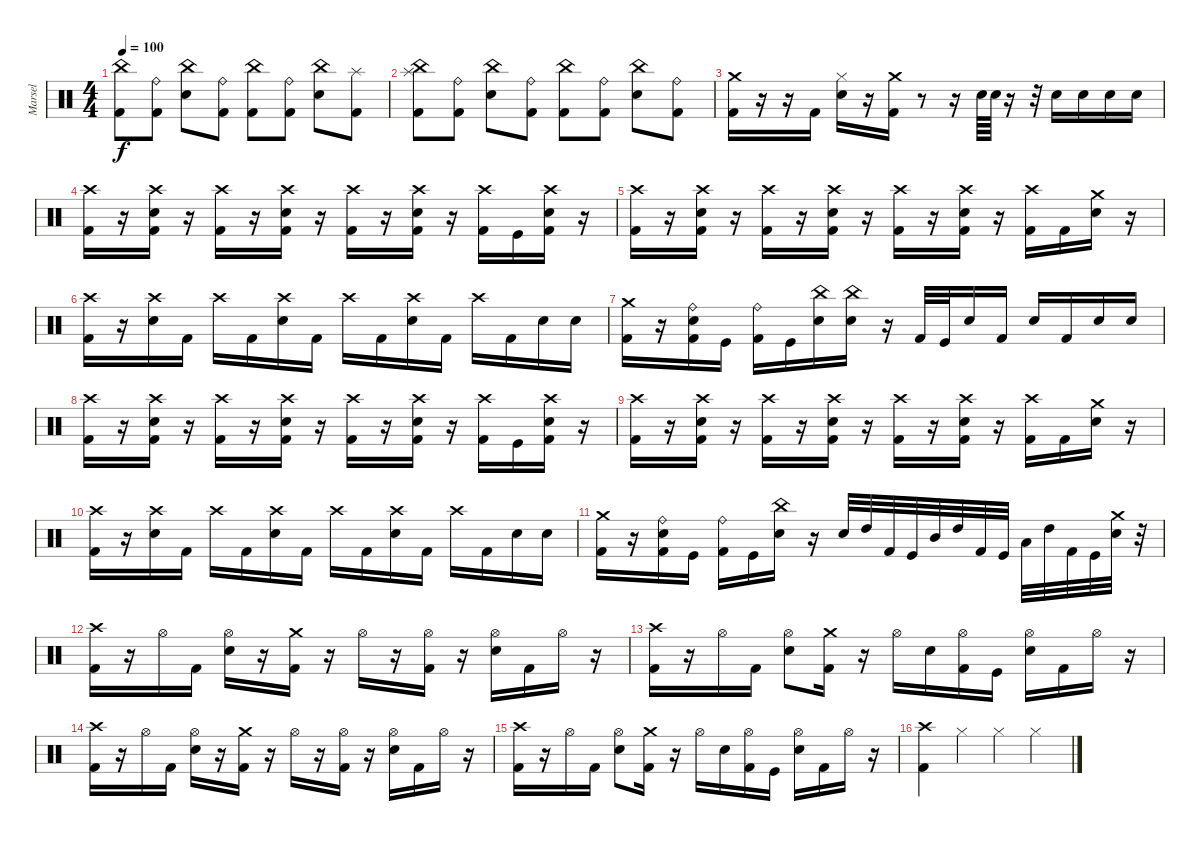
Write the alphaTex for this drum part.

\track ("Marsel" "Marsel") {instrument percussion}
\staff {score}
\articulation defaults
\ts (4 4)
\tempo 100
\clef neutral
\ks c
("China (hit)" "Kick (hit) 2").8{dy f} ("Ride (bell)" "Kick (hit) 2").8 ("China (hit)" "Snare (hit) 2").8 ("Ride (bell)" "Kick (hit) 2").8 ("China (hit)" "Kick (hit) 2").8 ("Ride (bell)" "Kick (hit) 2").8 ("China (hit)" "Snare (hit) 2").8 ("Splash (hit)" "Kick (hit) 2").8 |
("China (hit)" "Splash (hit)" "Kick (hit) 2").8 ("Ride (bell)" "Kick (hit) 2").8 ("China (hit)" "Snare (hit) 2").8 ("Ride (bell)" "Kick (hit) 2").8 ("China (hit)" "Kick (hit) 2").8 ("Ride (bell)" "Kick (hit) 2").8 ("China (hit)" "Snare (hit) 2").8 ("Ride (bell)" "Kick (hit) 2").8 |
("Crash medium (hit)" "Kick (hit) 2").16 r.16 r.16 "Kick (hit) 2".16 ("Hi-Hat (closed)" "Snare (hit) 2").16 r.16 ("Crash medium (hit)" "Kick (hit) 2").16 r.8 r.16 "Snare (hit) 2".64 "Snare (hit) 2".64 r.16 r.32 "Snare (hit) 2".16 "Snare (hit) 2".16 "Snare (hit) 2".16 "Snare (hit) 2".16 |
("Crash high (hit)" "Kick (hit) 2").16 r.16 ("Crash high (hit)" "Snare (hit) 2" "Kick (hit) 2").16 r.16 ("Crash high (hit)" "Kick (hit) 2").16 r.16 ("Crash high (hit)" "Snare (hit) 2" "Kick (hit) 2").16 r.16 ("Crash high (hit)" "Kick (hit) 2").16 r.16 ("Crash high (hit)" "Snare (hit) 2" "Kick (hit) 2").16 r.16 ("Crash high (hit)" "Kick (hit) 2").16 "Kick (hit)".16 ("Crash high (hit)" "Snare (hit) 2" "Kick (hit) 2").16 r.16 |
("Crash high (hit)" "Kick (hit) 2").16 r.16 ("Crash high (hit)" "Snare (hit) 2" "Kick (hit) 2").16 r.16 ("Crash high (hit)" "Kick (hit) 2").16 r.16 ("Crash high (hit)" "Snare (hit) 2" "Kick (hit) 2").16 r.16 ("Crash high (hit)" "Kick (hit) 2").16 r.16 ("Crash high (hit)" "Snare (hit) 2" "Kick (hit) 2").16 r.16 ("Crash high (hit)" "Kick (hit) 2").16 "Kick (hit) 2".16 ("Crash medium (hit)" "Snare (hit) 2").16 r.16 |
("Crash high (hit)" "Kick (hit) 2").16 r.16 ("Crash high (hit)" "Snare (hit) 2").16 "Kick (hit) 2".16 "Crash high (hit)".16 "Kick (hit) 2".16 ("Crash high (hit)" "Snare (hit) 2").16 "Kick (hit) 2".16 "Crash high (hit)".16 "Kick (hit) 2".16 ("Crash high (hit)" "Snare (hit) 2").16 "Kick (hit) 2".16 "Crash high (hit)".16 "Kick (hit) 2".16 "Snare (hit) 2".16 "Snare (hit) 2".16 |
("Crash medium (hit)" "Kick (hit) 2").16 r.16 ("Ride (bell)" "Snare (hit) 2" "Kick (hit) 2").16 "Kick (hit)".16 ("Ride (bell)" "Kick (hit) 2").16 "Kick (hit)".16 ("China (hit)" "Snare (hit) 2").16 ("China (hit)" "Snare (hit) 2").16 r.16 "Kick (hit) 2".32 "Kick (hit)".32 "Snare (hit) 2".16 "Kick (hit) 2".16 "Snare (hit) 2".16 "Kick (hit) 2".16 "Snare (hit) 2".16 "Snare (hit) 2".16 |
("Crash high (hit)" "Kick (hit) 2").16 r.16 ("Crash high (hit)" "Snare (hit) 2" "Kick (hit) 2").16 r.16 ("Crash high (hit)" "Kick (hit) 2").16 r.16 ("Crash high (hit)" "Snare (hit) 2" "Kick (hit) 2").16 r.16 ("Crash high (hit)" "Kick (hit) 2").16 r.16 ("Crash high (hit)" "Snare (hit) 2" "Kick (hit) 2").16 r.16 ("Crash high (hit)" "Kick (hit) 2").16 "Kick (hit)".16 ("Crash high (hit)" "Snare (hit) 2" "Kick (hit) 2").16 r.16 |
("Crash high (hit)" "Kick (hit) 2").16 r.16 ("Crash high (hit)" "Snare (hit) 2" "Kick (hit) 2").16 r.16 ("Crash high (hit)" "Kick (hit) 2").16 r.16 ("Crash high (hit)" "Snare (hit) 2" "Kick (hit) 2").16 r.16 ("Crash high (hit)" "Kick (hit) 2").16 r.16 ("Crash high (hit)" "Snare (hit) 2" "Kick (hit) 2").16 r.16 ("Crash high (hit)" "Kick (hit) 2").16 "Kick (hit) 2".16 ("Crash medium (hit)" "Snare (hit) 2").16 r.16 |
("Crash high (hit)" "Kick (hit) 2").16 r.16 ("Crash high (hit)" "Snare (hit) 2").16 "Kick (hit) 2".16 "Crash high (hit)".16 "Kick (hit) 2".16 ("Crash high (hit)" "Snare (hit) 2").16 "Kick (hit) 2".16 "Crash high (hit)".16 "Kick (hit) 2".16 ("Crash high (hit)" "Snare (hit) 2").16 "Kick (hit) 2".16 "Crash high (hit)".16 "Kick (hit) 2".16 "Snare (hit) 2".16 "Snare (hit) 2".16 |
("Crash medium (hit)" "Kick (hit) 2").16 r.16 ("Ride (bell)" "Snare (hit) 2" "Kick (hit) 2").16 "Kick (hit)".16 ("Ride (bell)" "Kick (hit) 2").16 "Kick (hit)".16 ("China (hit)" "Snare (hit) 2").16 r.16 "Snare (hit) 2".32 "High Tom (hit)".32 "Kick (hit) 2".32 "Kick (hit)".32 "Mid Tom (hit)".32 "High Tom (hit)".32 "Kick (hit) 2".32 "Kick (hit)".32 "Low Floor Tom (hit)".32 "High Tom (hit)".32 "Kick (hit) 2".32 "Kick (hit)".32 ("Crash medium (hit)" "Snare (hit) 2").32 r.32 |
("Crash high (hit)" "Kick (hit) 2").16 r.16 "Hi-Hat (open)".16 "Kick (hit) 2".16 ("Hi-Hat (open)" "Snare (hit) 2").16 r.16 ("Crash medium (hit)" "Kick (hit) 2").16 r.16 "Hi-Hat (open)".16 r.16 ("Hi-Hat (open)" "Kick (hit) 2").16 r.16 ("Hi-Hat (open)" "Snare (hit) 2").16 "Kick (hit) 2".16 "Hi-Hat (open)".16 r.16 |
("Crash high (hit)" "Kick (hit) 2").16 r.16 "Hi-Hat (open)".16 "Kick (hit) 2".16 ("Hi-Hat (open)" "Snare (hit) 2").8 ("Crash medium (hit)" "Kick (hit) 2").16 r.16 "Hi-Hat (open)".16 "Snare (hit) 2".16 ("Hi-Hat (open)" "Kick (hit) 2").16 "Kick (hit)".16 ("Hi-Hat (open)" "Snare (hit) 2").16 "Kick (hit) 2".16 "Hi-Hat (open)".16 r.16 |
("Crash high (hit)" "Kick (hit) 2").16 r.16 "Hi-Hat (open)".16 "Kick (hit) 2".16 ("Hi-Hat (open)" "Snare (hit) 2").16 r.16 ("Crash medium (hit)" "Kick (hit) 2").16 r.16 "Hi-Hat (open)".16 r.16 ("Hi-Hat (open)" "Kick (hit) 2").16 r.16 ("Hi-Hat (open)" "Snare (hit) 2").16 "Kick (hit) 2".16 "Hi-Hat (open)".16 r.16 |
("Crash high (hit)" "Kick (hit) 2").16 r.16 "Hi-Hat (open)".16 "Kick (hit) 2".16 ("Hi-Hat (open)" "Snare (hit) 2").8 ("Crash medium (hit)" "Kick (hit) 2").16 r.16 "Hi-Hat (open)".16 "Snare (hit) 2".16 ("Hi-Hat (open)" "Kick (hit) 2").16 "Kick (hit)".16 ("Hi-Hat (open)" "Snare (hit) 2").16 "Kick (hit) 2".16 "Hi-Hat (open)".16 r.16 |
("Crash high (hit)" "Kick (hit) 2").4 "Hi-Hat (closed)".4 "Hi-Hat (closed)".4 "Hi-Hat (closed)".4
